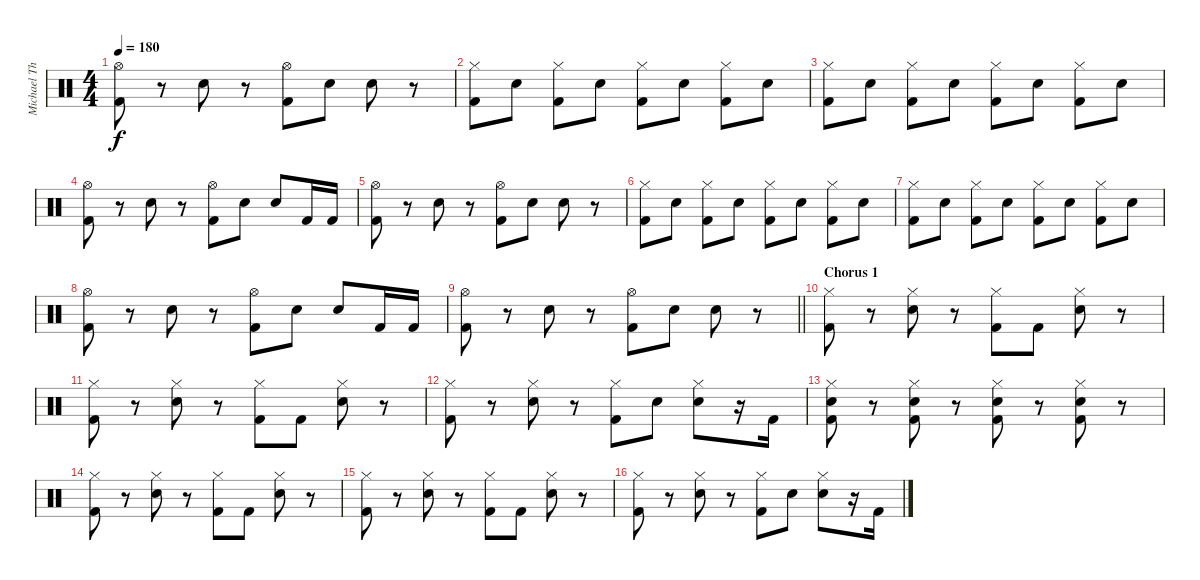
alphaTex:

\track ("Michael Thomas" "Michael Th") {instrument percussion}
\staff
\articulation defaults
\ts (4 4)
\tempo 180
\clef neutral
\ks c
("Hi-Hat (open)" "Kick (hit) 2").8{dy f} r.8 "Electric Snare (hit)".8 r.8 ("Hi-Hat (open)" "Kick (hit) 2").8 "Electric Snare (hit)".8 "Electric Snare (hit)".8 r.8 |
("Hi-Hat (closed)" "Kick (hit) 2").8 "Electric Snare (hit)".8 ("Hi-Hat (closed)" "Kick (hit) 2").8 "Electric Snare (hit)".8 ("Hi-Hat (closed)" "Kick (hit) 2").8 "Electric Snare (hit)".8 ("Hi-Hat (closed)" "Kick (hit) 2").8 "Electric Snare (hit)".8 |
("Hi-Hat (closed)" "Kick (hit) 2").8 "Electric Snare (hit)".8 ("Hi-Hat (closed)" "Kick (hit) 2").8 "Electric Snare (hit)".8 ("Hi-Hat (closed)" "Kick (hit) 2").8 "Electric Snare (hit)".8 ("Hi-Hat (closed)" "Kick (hit) 2").8 "Electric Snare (hit)".8 |
("Hi-Hat (open)" "Kick (hit) 2").8 r.8 "Electric Snare (hit)".8 r.8 ("Hi-Hat (open)" "Kick (hit) 2").8 "Electric Snare (hit)".8 "Electric Snare (hit)".8 "Kick (hit) 2".16 "Kick (hit) 2".16 |
("Hi-Hat (open)" "Kick (hit) 2").8 r.8 "Electric Snare (hit)".8 r.8 ("Hi-Hat (open)" "Kick (hit) 2").8 "Electric Snare (hit)".8 "Electric Snare (hit)".8 r.8 |
("Hi-Hat (closed)" "Kick (hit) 2").8 "Electric Snare (hit)".8 ("Hi-Hat (closed)" "Kick (hit) 2").8 "Electric Snare (hit)".8 ("Hi-Hat (closed)" "Kick (hit) 2").8 "Electric Snare (hit)".8 ("Hi-Hat (closed)" "Kick (hit) 2").8 "Electric Snare (hit)".8 |
("Hi-Hat (closed)" "Kick (hit) 2").8 "Electric Snare (hit)".8 ("Hi-Hat (closed)" "Kick (hit) 2").8 "Electric Snare (hit)".8 ("Hi-Hat (closed)" "Kick (hit) 2").8 "Electric Snare (hit)".8 ("Hi-Hat (closed)" "Kick (hit) 2").8 "Electric Snare (hit)".8 |
("Hi-Hat (open)" "Kick (hit) 2").8 r.8 "Electric Snare (hit)".8 r.8 ("Hi-Hat (open)" "Kick (hit) 2").8 "Electric Snare (hit)".8 "Electric Snare (hit)".8 "Kick (hit) 2".16 "Kick (hit) 2".16 |
\barLineRight lightlight
("Hi-Hat (open)" "Kick (hit) 2").8 r.8 "Electric Snare (hit)".8 r.8 ("Hi-Hat (open)" "Kick (hit) 2").8 "Electric Snare (hit)".8 "Electric Snare (hit)".8 r.8 |
\section ("" "Chorus 1")
("Hi-Hat (closed)" "Kick (hit) 2").8 r.8 ("Hi-Hat (closed)" "Electric Snare (hit)").8 r.8 ("Hi-Hat (closed)" "Kick (hit) 2").8 "Kick (hit) 2".8 ("Hi-Hat (closed)" "Electric Snare (hit)").8 r.8 |
("Hi-Hat (closed)" "Kick (hit) 2").8 r.8 ("Hi-Hat (closed)" "Electric Snare (hit)").8 r.8 ("Hi-Hat (closed)" "Kick (hit) 2").8 "Kick (hit) 2".8 ("Hi-Hat (closed)" "Electric Snare (hit)").8 r.8 |
("Hi-Hat (closed)" "Kick (hit) 2").8 r.8 ("Hi-Hat (closed)" "Electric Snare (hit)").8 r.8 ("Hi-Hat (closed)" "Kick (hit) 2").8 "Electric Snare (hit)".8 ("Hi-Hat (closed)" "Electric Snare (hit)").8 r.16 "Kick (hit) 2".16 |
("Hi-Hat (closed)" "Electric Snare (hit)" "Kick (hit) 2").8 r.8 ("Hi-Hat (closed)" "Electric Snare (hit)" "Kick (hit) 2").8 r.8 ("Hi-Hat (closed)" "Electric Snare (hit)" "Kick (hit) 2").8 r.8 ("Hi-Hat (closed)" "Electric Snare (hit)" "Kick (hit) 2").8 r.8 |
("Hi-Hat (closed)" "Kick (hit) 2").8 r.8 ("Hi-Hat (closed)" "Electric Snare (hit)").8 r.8 ("Hi-Hat (closed)" "Kick (hit) 2").8 "Kick (hit) 2".8 ("Hi-Hat (closed)" "Electric Snare (hit)").8 r.8 |
("Hi-Hat (closed)" "Kick (hit) 2").8 r.8 ("Hi-Hat (closed)" "Electric Snare (hit)").8 r.8 ("Hi-Hat (closed)" "Kick (hit) 2").8 "Kick (hit) 2".8 ("Hi-Hat (closed)" "Electric Snare (hit)").8 r.8 |
("Hi-Hat (closed)" "Kick (hit) 2").8 r.8 ("Hi-Hat (closed)" "Electric Snare (hit)").8 r.8 ("Hi-Hat (closed)" "Kick (hit) 2").8 "Electric Snare (hit)".8 ("Hi-Hat (closed)" "Electric Snare (hit)").8 r.16 "Kick (hit) 2".16
